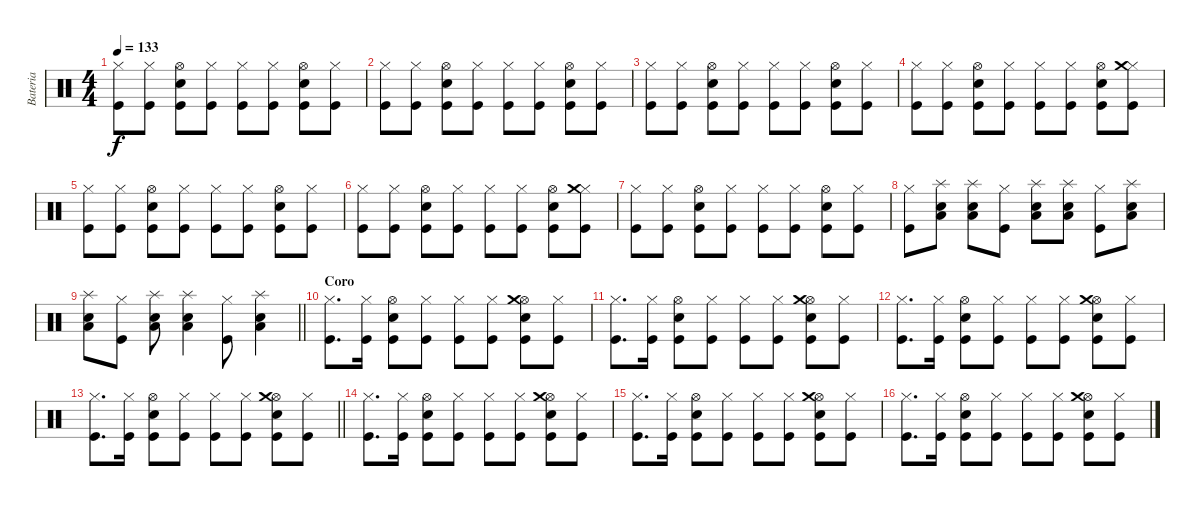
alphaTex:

\track ("Bateria" "Bateria") {instrument percussion}
\staff
\articulation defaults
\ts (4 4)
\tempo 133
\clef neutral
\ks c
("Hi-Hat (closed)" "Kick (hit)").8{dy f} ("Hi-Hat (closed)" "Kick (hit)").8 ("Hi-Hat (open)" "Kick (hit)" "Snare (hit) 2").8 ("Hi-Hat (closed)" "Kick (hit)").8 ("Hi-Hat (closed)" "Kick (hit)").8 ("Hi-Hat (closed)" "Kick (hit)").8 ("Hi-Hat (open)" "Kick (hit)" "Snare (hit) 2").8 ("Hi-Hat (closed)" "Kick (hit)").8 |
("Hi-Hat (closed)" "Kick (hit)").8 ("Hi-Hat (closed)" "Kick (hit)").8 ("Hi-Hat (open)" "Kick (hit)" "Snare (hit) 2").8 ("Hi-Hat (closed)" "Kick (hit)").8 ("Hi-Hat (closed)" "Kick (hit)").8 ("Hi-Hat (closed)" "Kick (hit)").8 ("Hi-Hat (open)" "Kick (hit)" "Snare (hit) 2").8 ("Hi-Hat (closed)" "Kick (hit)").8 |
("Hi-Hat (closed)" "Kick (hit)").8 ("Hi-Hat (closed)" "Kick (hit)").8 ("Hi-Hat (open)" "Kick (hit)" "Snare (hit) 2").8 ("Hi-Hat (closed)" "Kick (hit)").8 ("Hi-Hat (closed)" "Kick (hit)").8 ("Hi-Hat (closed)" "Kick (hit)").8 ("Hi-Hat (open)" "Kick (hit)" "Snare (hit) 2").8 ("Hi-Hat (closed)" "Kick (hit)").8 |
("Hi-Hat (closed)" "Kick (hit)").8 ("Hi-Hat (closed)" "Kick (hit)").8 ("Hi-Hat (open)" "Kick (hit)" "Snare (hit) 2").8 ("Hi-Hat (closed)" "Kick (hit)").8 ("Hi-Hat (closed)" "Kick (hit)").8 ("Hi-Hat (closed)" "Kick (hit)").8 ("Hi-Hat (open)" "Kick (hit)" "Snare (hit) 2").8 ("Hi-Hat (closed)" "Kick (hit)" "Crash medium (hit)").8 |
("Hi-Hat (closed)" "Kick (hit)").8 ("Hi-Hat (closed)" "Kick (hit)").8 ("Hi-Hat (open)" "Kick (hit)" "Snare (hit) 2").8 ("Hi-Hat (closed)" "Kick (hit)").8 ("Hi-Hat (closed)" "Kick (hit)").8 ("Hi-Hat (closed)" "Kick (hit)").8 ("Hi-Hat (open)" "Kick (hit)" "Snare (hit) 2").8 ("Hi-Hat (closed)" "Kick (hit)").8 |
("Hi-Hat (closed)" "Kick (hit)").8 ("Hi-Hat (closed)" "Kick (hit)").8 ("Hi-Hat (open)" "Kick (hit)" "Snare (hit) 2").8 ("Hi-Hat (closed)" "Kick (hit)").8 ("Hi-Hat (closed)" "Kick (hit)").8 ("Hi-Hat (closed)" "Kick (hit)").8 ("Hi-Hat (open)" "Kick (hit)" "Snare (hit) 2").8 ("Hi-Hat (closed)" "Kick (hit)" "Crash medium (hit)").8 |
("Hi-Hat (closed)" "Kick (hit)").8 ("Hi-Hat (closed)" "Kick (hit)").8 ("Hi-Hat (open)" "Kick (hit)" "Snare (hit) 2").8 ("Hi-Hat (closed)" "Kick (hit)").8 ("Hi-Hat (closed)" "Kick (hit)").8 ("Hi-Hat (closed)" "Kick (hit)").8 ("Hi-Hat (open)" "Kick (hit)" "Snare (hit) 2").8 ("Hi-Hat (closed)" "Kick (hit)").8 |
("Hi-Hat (closed)" "Kick (hit)").8 ("Low Floor Tom (hit)" "Electric Snare (hit)" "Splash (hit)").8 ("Low Floor Tom (hit)" "Electric Snare (hit)" "Splash (hit)").8 ("Hi-Hat (closed)" "Kick (hit)").8 ("Low Floor Tom (hit)" "Electric Snare (hit)" "Splash (hit)").8 ("Low Floor Tom (hit)" "Electric Snare (hit)" "Splash (hit)").8 ("Hi-Hat (closed)" "Kick (hit)").8 ("Low Floor Tom (hit)" "Electric Snare (hit)" "Splash (hit)").8 |
\barLineRight lightlight
("Low Floor Tom (hit)" "Electric Snare (hit)" "Splash (hit)").8 ("Hi-Hat (closed)" "Kick (hit)").8 ("Low Floor Tom (hit)" "Electric Snare (hit)" "Splash (hit)").8 ("Low Floor Tom (hit)" "Electric Snare (hit)" "Splash (hit)").4 ("Hi-Hat (closed)" "Kick (hit)").8 ("Low Floor Tom (hit)" "Electric Snare (hit)" "Splash (hit)").4 |
\section ("" "Coro")
("Hi-Hat (closed)" "Kick (hit)").8{d} ("Hi-Hat (closed)" "Kick (hit)").16 ("Hi-Hat (open)" "Kick (hit)" "Snare (hit) 2").8 ("Hi-Hat (closed)" "Kick (hit)").8 ("Hi-Hat (closed)" "Kick (hit)").8 ("Hi-Hat (closed)" "Kick (hit)").8 ("Hi-Hat (open)" "Kick (hit)" "Snare (hit) 2" "Crash medium (hit)").8 ("Hi-Hat (closed)" "Kick (hit)").8 |
("Hi-Hat (closed)" "Kick (hit)").8{d} ("Hi-Hat (closed)" "Kick (hit)").16 ("Hi-Hat (open)" "Kick (hit)" "Snare (hit) 2").8 ("Hi-Hat (closed)" "Kick (hit)").8 ("Hi-Hat (closed)" "Kick (hit)").8 ("Hi-Hat (closed)" "Kick (hit)").8 ("Hi-Hat (open)" "Kick (hit)" "Snare (hit) 2" "Crash medium (hit)").8 ("Hi-Hat (closed)" "Kick (hit)").8 |
("Hi-Hat (closed)" "Kick (hit)").8{d} ("Hi-Hat (closed)" "Kick (hit)").16 ("Hi-Hat (open)" "Kick (hit)" "Snare (hit) 2").8 ("Hi-Hat (closed)" "Kick (hit)").8 ("Hi-Hat (closed)" "Kick (hit)").8 ("Hi-Hat (closed)" "Kick (hit)").8 ("Hi-Hat (open)" "Kick (hit)" "Snare (hit) 2" "Crash medium (hit)").8 ("Hi-Hat (closed)" "Kick (hit)").8 |
\barLineRight lightlight
("Hi-Hat (closed)" "Kick (hit)").8{d} ("Hi-Hat (closed)" "Kick (hit)").16 ("Hi-Hat (open)" "Kick (hit)" "Snare (hit) 2").8 ("Hi-Hat (closed)" "Kick (hit)").8 ("Hi-Hat (closed)" "Kick (hit)").8 ("Hi-Hat (closed)" "Kick (hit)").8 ("Hi-Hat (open)" "Kick (hit)" "Snare (hit) 2" "Crash medium (hit)").8 ("Hi-Hat (closed)" "Kick (hit)").8 |
("Hi-Hat (closed)" "Kick (hit)").8{d} ("Hi-Hat (closed)" "Kick (hit)").16 ("Hi-Hat (open)" "Kick (hit)" "Snare (hit) 2").8 ("Hi-Hat (closed)" "Kick (hit)").8 ("Hi-Hat (closed)" "Kick (hit)").8 ("Hi-Hat (closed)" "Kick (hit)").8 ("Hi-Hat (open)" "Kick (hit)" "Snare (hit) 2" "Crash medium (hit)").8 ("Hi-Hat (closed)" "Kick (hit)").8 |
("Hi-Hat (closed)" "Kick (hit)").8{d} ("Hi-Hat (closed)" "Kick (hit)").16 ("Hi-Hat (open)" "Kick (hit)" "Snare (hit) 2").8 ("Hi-Hat (closed)" "Kick (hit)").8 ("Hi-Hat (closed)" "Kick (hit)").8 ("Hi-Hat (closed)" "Kick (hit)").8 ("Hi-Hat (open)" "Kick (hit)" "Snare (hit) 2" "Crash medium (hit)").8 ("Hi-Hat (closed)" "Kick (hit)").8 |
("Hi-Hat (closed)" "Kick (hit)").8{d} ("Hi-Hat (closed)" "Kick (hit)").16 ("Hi-Hat (open)" "Kick (hit)" "Snare (hit) 2").8 ("Hi-Hat (closed)" "Kick (hit)").8 ("Hi-Hat (closed)" "Kick (hit)").8 ("Hi-Hat (closed)" "Kick (hit)").8 ("Hi-Hat (open)" "Kick (hit)" "Snare (hit) 2" "Crash medium (hit)").8 ("Hi-Hat (closed)" "Kick (hit)").8
